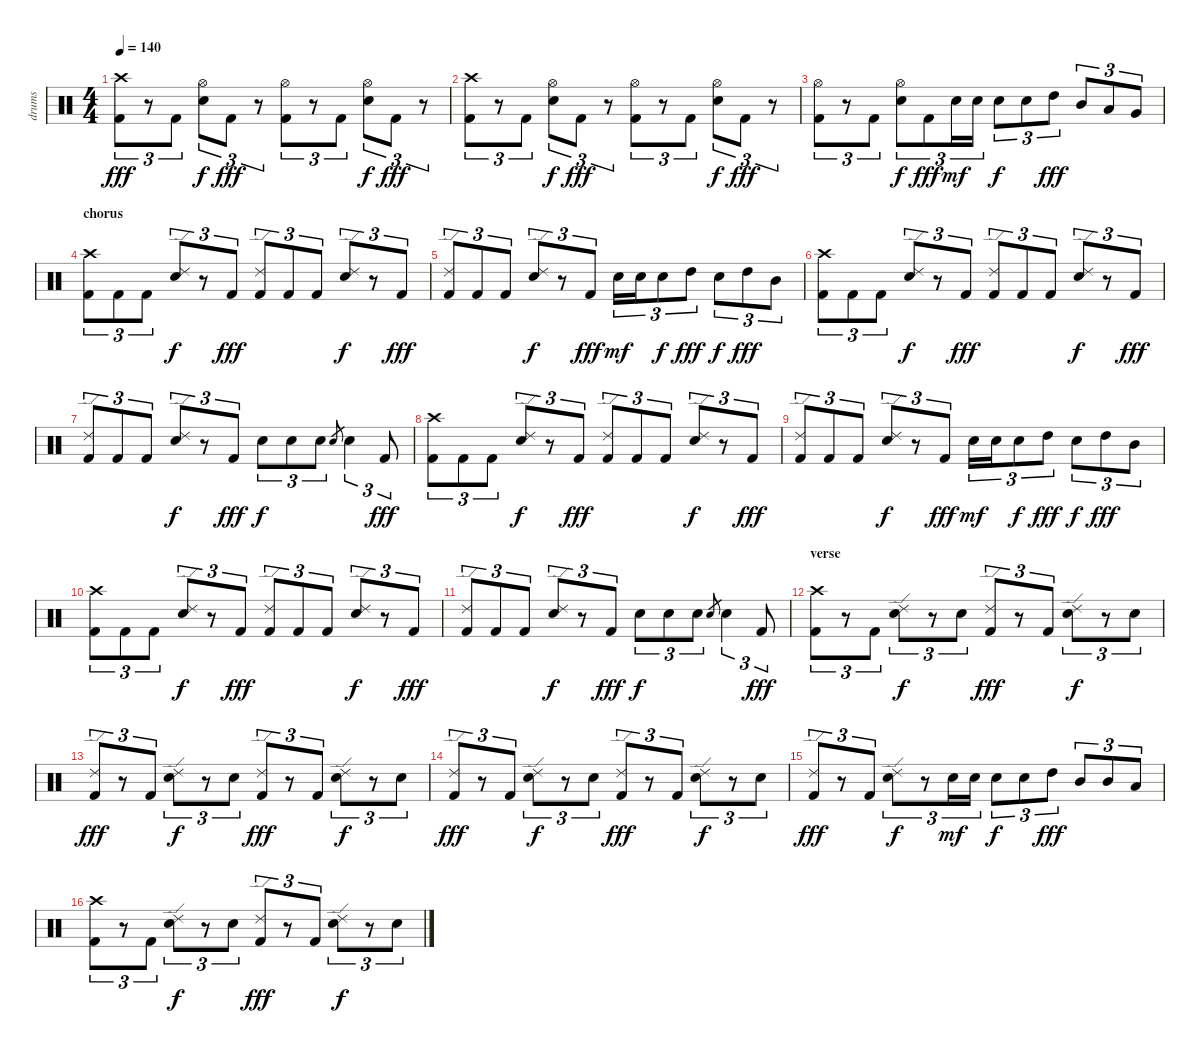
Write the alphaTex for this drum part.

\track ("drums" "drums") {instrument percussion}
\staff {score}
\articulation defaults
\ts (4 4)
\tempo 140
\clef neutral
\ks c
("Crash high (hit)" "Kick (hit) 2").8{tu (3 2) dy fff} r.8{tu (3 2)} "Kick (hit) 2".8{tu (3 2)} ("Hi-Hat (open)" "Snare (hit) 2").8{tu (3 2) dy f} "Kick (hit) 2".8{tu (3 2) dy fff} r.8{tu (3 2)} ("Hi-Hat (open)" "Kick (hit) 2").8{tu (3 2)} r.8{tu (3 2)} "Kick (hit) 2".8{tu (3 2)} ("Hi-Hat (open)" "Snare (hit) 2").8{tu (3 2) dy f} "Kick (hit) 2".8{tu (3 2) dy fff} r.8{tu (3 2)} |
("Crash high (hit)" "Kick (hit) 2").8{tu (3 2)} r.8{tu (3 2)} "Kick (hit) 2".8{tu (3 2)} ("Hi-Hat (open)" "Snare (hit) 2").8{tu (3 2) dy f} "Kick (hit) 2".8{tu (3 2) dy fff} r.8{tu (3 2)} ("Hi-Hat (open)" "Kick (hit) 2").8{tu (3 2)} r.8{tu (3 2)} "Kick (hit) 2".8{tu (3 2)} ("Hi-Hat (open)" "Snare (hit) 2").8{tu (3 2) dy f} "Kick (hit) 2".8{tu (3 2) dy fff} r.8{tu (3 2)} |
("Hi-Hat (open)" "Kick (hit) 2").8{tu (3 2)} r.8{tu (3 2)} "Kick (hit) 2".8{tu (3 2)} ("Hi-Hat (open)" "Snare (hit) 2").8{tu (3 2) dy f} "Kick (hit) 2".8{tu (3 2) dy fff} "Snare (hit) 2".16{tu (3 2) dy mf} "Snare (hit) 2".16{tu (3 2)} "Snare (hit) 2".8{tu (3 2) dy f} "Snare (hit) 2".8{tu (3 2)} "High Tom (hit)".8{tu (3 2) dy fff} "Mid Tom (hit)".8{tu (3 2)} "Low Tom (hit)".8{tu (3 2)} "Very Low Tom (hit)".8{tu (3 2)} |
\section ("" "chorus")
("Crash high (hit)" "Kick (hit) 2").8{tu (3 2)} "Kick (hit) 2".8{tu (3 2)} "Kick (hit) 2".8{tu (3 2)} ("Ride (edge) 2" "Snare (hit) 2").8{tu (3 2) dy f} r.8{tu (3 2)} "Kick (hit) 2".8{tu (3 2) dy fff} ("Ride (edge) 2" "Kick (hit) 2").8{tu (3 2)} "Kick (hit) 2".8{tu (3 2)} "Kick (hit) 2".8{tu (3 2)} ("Ride (edge) 2" "Snare (hit) 2").8{tu (3 2) dy f} r.8{tu (3 2)} "Kick (hit) 2".8{tu (3 2) dy fff} |
("Ride (edge) 2" "Kick (hit) 2").8{tu (3 2)} "Kick (hit) 2".8{tu (3 2)} "Kick (hit) 2".8{tu (3 2)} ("Ride (edge) 2" "Snare (hit) 2").8{tu (3 2) dy f} r.8{tu (3 2)} "Kick (hit) 2".8{tu (3 2) dy fff} "Snare (hit) 2".16{tu (3 2) dy mf} "Snare (hit) 2".16{tu (3 2)} "Snare (hit) 2".8{tu (3 2) dy f} "High Tom (hit)".8{tu (3 2) dy fff} "Snare (hit) 2".8{tu (3 2) dy f} "High Tom (hit)".8{tu (3 2) dy fff} "Mid Tom (hit)".8{tu (3 2)} |
("Crash high (hit)" "Kick (hit) 2").8{tu (3 2)} "Kick (hit) 2".8{tu (3 2)} "Kick (hit) 2".8{tu (3 2)} ("Ride (edge) 2" "Snare (hit) 2").8{tu (3 2) dy f} r.8{tu (3 2)} "Kick (hit) 2".8{tu (3 2) dy fff} ("Ride (edge) 2" "Kick (hit) 2").8{tu (3 2)} "Kick (hit) 2".8{tu (3 2)} "Kick (hit) 2".8{tu (3 2)} ("Ride (edge) 2" "Snare (hit) 2").8{tu (3 2) dy f} r.8{tu (3 2)} "Kick (hit) 2".8{tu (3 2) dy fff} |
("Ride (edge) 2" "Kick (hit) 2").8{tu (3 2)} "Kick (hit) 2".8{tu (3 2)} "Kick (hit) 2".8{tu (3 2)} ("Ride (edge) 2" "Snare (hit) 2").8{tu (3 2) dy f} r.8{tu (3 2)} "Kick (hit) 2".8{tu (3 2) dy fff} "Snare (hit) 2".8{tu (3 2) dy f} "Snare (hit) 2".8{tu (3 2)} "Snare (hit) 2".8{tu (3 2)} "Snare (hit) 2".8{gr} "Snare (hit) 2".4{tu (3 2)} "Kick (hit) 2".8{tu (3 2) dy fff} |
("Crash high (hit)" "Kick (hit) 2").8{tu (3 2)} "Kick (hit) 2".8{tu (3 2)} "Kick (hit) 2".8{tu (3 2)} ("Ride (edge) 2" "Snare (hit) 2").8{tu (3 2) dy f} r.8{tu (3 2)} "Kick (hit) 2".8{tu (3 2) dy fff} ("Ride (edge) 2" "Kick (hit) 2").8{tu (3 2)} "Kick (hit) 2".8{tu (3 2)} "Kick (hit) 2".8{tu (3 2)} ("Ride (edge) 2" "Snare (hit) 2").8{tu (3 2) dy f} r.8{tu (3 2)} "Kick (hit) 2".8{tu (3 2) dy fff} |
("Ride (edge) 2" "Kick (hit) 2").8{tu (3 2)} "Kick (hit) 2".8{tu (3 2)} "Kick (hit) 2".8{tu (3 2)} ("Ride (edge) 2" "Snare (hit) 2").8{tu (3 2) dy f} r.8{tu (3 2)} "Kick (hit) 2".8{tu (3 2) dy fff} "Snare (hit) 2".16{tu (3 2) dy mf} "Snare (hit) 2".16{tu (3 2)} "Snare (hit) 2".8{tu (3 2) dy f} "High Tom (hit)".8{tu (3 2) dy fff} "Snare (hit) 2".8{tu (3 2) dy f} "High Tom (hit)".8{tu (3 2) dy fff} "Mid Tom (hit)".8{tu (3 2)} |
("Crash high (hit)" "Kick (hit) 2").8{tu (3 2)} "Kick (hit) 2".8{tu (3 2)} "Kick (hit) 2".8{tu (3 2)} ("Ride (edge) 2" "Snare (hit) 2").8{tu (3 2) dy f} r.8{tu (3 2)} "Kick (hit) 2".8{tu (3 2) dy fff} ("Ride (edge) 2" "Kick (hit) 2").8{tu (3 2)} "Kick (hit) 2".8{tu (3 2)} "Kick (hit) 2".8{tu (3 2)} ("Ride (edge) 2" "Snare (hit) 2").8{tu (3 2) dy f} r.8{tu (3 2)} "Kick (hit) 2".8{tu (3 2) dy fff} |
("Ride (edge) 2" "Kick (hit) 2").8{tu (3 2)} "Kick (hit) 2".8{tu (3 2)} "Kick (hit) 2".8{tu (3 2)} ("Ride (edge) 2" "Snare (hit) 2").8{tu (3 2) dy f} r.8{tu (3 2)} "Kick (hit) 2".8{tu (3 2) dy fff} "Snare (hit) 2".8{tu (3 2) dy f} "Snare (hit) 2".8{tu (3 2)} "Snare (hit) 2".8{tu (3 2)} "Snare (hit) 2".8{gr} "Snare (hit) 2".4{tu (3 2)} "Kick (hit) 2".8{tu (3 2) dy fff} |
\section ("" "verse")
("Crash high (hit)" "Kick (hit) 2").8{tu (3 2)} r.8{tu (3 2)} "Kick (hit) 2".8{tu (3 2)} ("Ride (edge) 2" "Snare (hit) 2").8{tu (3 2) dy f} r.8{tu (3 2)} "Snare (hit) 2".8{tu (3 2)} ("Ride (edge) 2" "Kick (hit) 2").8{tu (3 2) dy fff} r.8{tu (3 2)} "Kick (hit) 2".8{tu (3 2)} ("Ride (edge) 2" "Snare (hit) 2").8{tu (3 2) dy f} r.8{tu (3 2)} "Snare (hit) 2".8{tu (3 2)} |
("Ride (edge) 2" "Kick (hit) 2").8{tu (3 2) dy fff} r.8{tu (3 2)} "Kick (hit) 2".8{tu (3 2)} ("Ride (edge) 2" "Snare (hit) 2").8{tu (3 2) dy f} r.8{tu (3 2)} "Snare (hit) 2".8{tu (3 2)} ("Ride (edge) 2" "Kick (hit) 2").8{tu (3 2) dy fff} r.8{tu (3 2)} "Kick (hit) 2".8{tu (3 2)} ("Ride (edge) 2" "Snare (hit) 2").8{tu (3 2) dy f} r.8{tu (3 2)} "Snare (hit) 2".8{tu (3 2)} |
("Ride (edge) 2" "Kick (hit) 2").8{tu (3 2) dy fff} r.8{tu (3 2)} "Kick (hit) 2".8{tu (3 2)} ("Ride (edge) 2" "Snare (hit) 2").8{tu (3 2) dy f} r.8{tu (3 2)} "Snare (hit) 2".8{tu (3 2)} ("Ride (edge) 2" "Kick (hit) 2").8{tu (3 2) dy fff} r.8{tu (3 2)} "Kick (hit) 2".8{tu (3 2)} ("Ride (edge) 2" "Snare (hit) 2").8{tu (3 2) dy f} r.8{tu (3 2)} "Snare (hit) 2".8{tu (3 2)} |
("Ride (edge) 2" "Kick (hit) 2").8{tu (3 2) dy fff} r.8{tu (3 2)} "Kick (hit) 2".8{tu (3 2)} ("Ride (edge) 2" "Snare (hit) 2").8{tu (3 2) dy f} r.8{tu (3 2)} "Snare (hit) 2".16{tu (3 2) dy mf} "Snare (hit) 2".16{tu (3 2)} "Snare (hit) 2".8{tu (3 2) dy f} "Snare (hit) 2".8{tu (3 2)} "High Tom (hit)".8{tu (3 2) dy fff} "Mid Tom (hit)".8{tu (3 2)} "Mid Tom (hit)".8{tu (3 2)} "Low Tom (hit)".8{tu (3 2)} |
("Crash high (hit)" "Kick (hit) 2").8{tu (3 2)} r.8{tu (3 2)} "Kick (hit) 2".8{tu (3 2)} ("Ride (edge) 2" "Snare (hit) 2").8{tu (3 2) dy f} r.8{tu (3 2)} "Snare (hit) 2".8{tu (3 2)} ("Ride (edge) 2" "Kick (hit) 2").8{tu (3 2) dy fff} r.8{tu (3 2)} "Kick (hit) 2".8{tu (3 2)} ("Ride (edge) 2" "Snare (hit) 2").8{tu (3 2) dy f} r.8{tu (3 2)} "Snare (hit) 2".8{tu (3 2)}
